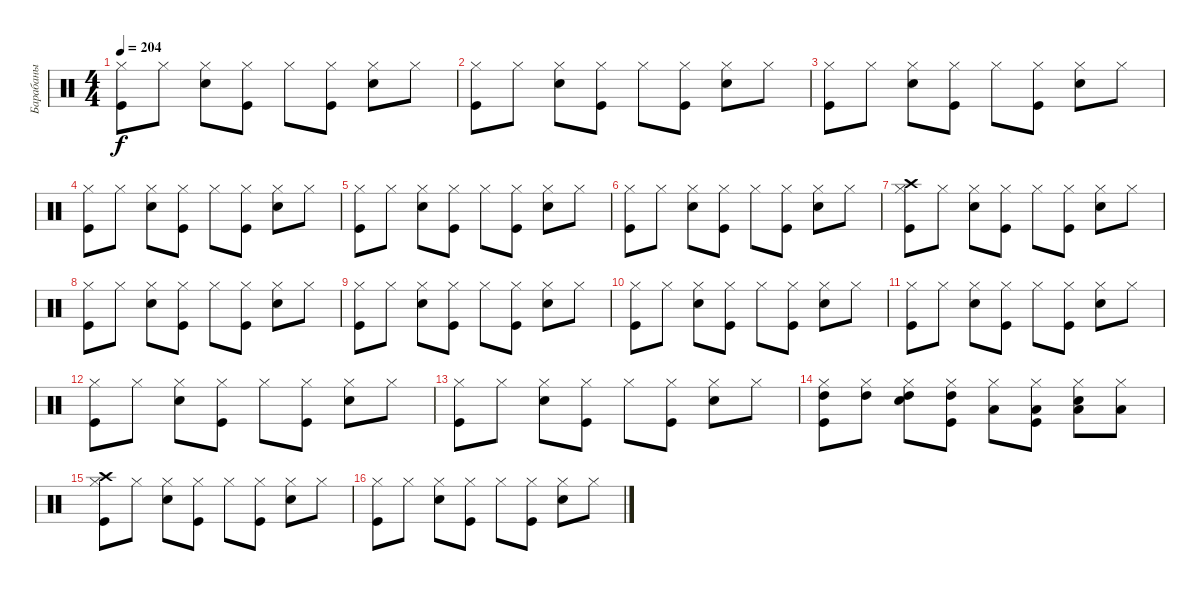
\track ("Барабаны" "Барабаны") {instrument percussion}
\staff {score}
\articulation defaults
\ts (4 4)
\tempo 204
\clef neutral
\ks c
("Kick (hit)" "Hi-Hat (closed)").8{dy f} "Hi-Hat (closed)".8 ("Snare (hit) 2" "Hi-Hat (closed)").8 ("Kick (hit)" "Hi-Hat (closed)").8 "Hi-Hat (closed)".8 ("Kick (hit)" "Hi-Hat (closed)").8 ("Snare (hit) 2" "Hi-Hat (closed)").8 "Hi-Hat (closed)".8 |
("Kick (hit)" "Hi-Hat (closed)").8 "Hi-Hat (closed)".8 ("Snare (hit) 2" "Hi-Hat (closed)").8 ("Kick (hit)" "Hi-Hat (closed)").8 "Hi-Hat (closed)".8 ("Kick (hit)" "Hi-Hat (closed)").8 ("Snare (hit) 2" "Hi-Hat (closed)").8 "Hi-Hat (closed)".8 |
("Kick (hit)" "Hi-Hat (closed)").8 "Hi-Hat (closed)".8 ("Snare (hit) 2" "Hi-Hat (closed)").8 ("Kick (hit)" "Hi-Hat (closed)").8 "Hi-Hat (closed)".8 ("Kick (hit)" "Hi-Hat (closed)").8 ("Snare (hit) 2" "Hi-Hat (closed)").8 "Hi-Hat (closed)".8 |
("Kick (hit)" "Hi-Hat (closed)").8 "Hi-Hat (closed)".8 ("Snare (hit) 2" "Hi-Hat (closed)").8 ("Kick (hit)" "Hi-Hat (closed)").8 "Hi-Hat (closed)".8 ("Kick (hit)" "Hi-Hat (closed)").8 ("Snare (hit) 2" "Hi-Hat (closed)").8 "Hi-Hat (closed)".8 |
("Kick (hit)" "Hi-Hat (closed)").8 "Hi-Hat (closed)".8 ("Snare (hit) 2" "Hi-Hat (closed)").8 ("Kick (hit)" "Hi-Hat (closed)").8 "Hi-Hat (closed)".8 ("Kick (hit)" "Hi-Hat (closed)").8 ("Snare (hit) 2" "Hi-Hat (closed)").8 "Hi-Hat (closed)".8 |
("Kick (hit)" "Hi-Hat (closed)").8 "Hi-Hat (closed)".8 ("Snare (hit) 2" "Hi-Hat (closed)").8 ("Kick (hit)" "Hi-Hat (closed)").8 "Hi-Hat (closed)".8 ("Kick (hit)" "Hi-Hat (closed)").8 ("Snare (hit) 2" "Hi-Hat (closed)").8 "Hi-Hat (closed)".8 |
("Kick (hit)" "Hi-Hat (closed)" "Crash high (hit)").8 "Hi-Hat (closed)".8 ("Snare (hit) 2" "Hi-Hat (closed)").8 ("Kick (hit)" "Hi-Hat (closed)").8 "Hi-Hat (closed)".8 ("Kick (hit)" "Hi-Hat (closed)").8 ("Snare (hit) 2" "Hi-Hat (closed)").8 "Hi-Hat (closed)".8 |
("Kick (hit)" "Hi-Hat (closed)").8 "Hi-Hat (closed)".8 ("Snare (hit) 2" "Hi-Hat (closed)").8 ("Kick (hit)" "Hi-Hat (closed)").8 "Hi-Hat (closed)".8 ("Kick (hit)" "Hi-Hat (closed)").8 ("Snare (hit) 2" "Hi-Hat (closed)").8 "Hi-Hat (closed)".8 |
("Kick (hit)" "Hi-Hat (closed)").8 "Hi-Hat (closed)".8 ("Snare (hit) 2" "Hi-Hat (closed)").8 ("Kick (hit)" "Hi-Hat (closed)").8 "Hi-Hat (closed)".8 ("Kick (hit)" "Hi-Hat (closed)").8 ("Snare (hit) 2" "Hi-Hat (closed)").8 "Hi-Hat (closed)".8 |
("Kick (hit)" "Hi-Hat (closed)").8 "Hi-Hat (closed)".8 ("Snare (hit) 2" "Hi-Hat (closed)").8 ("Kick (hit)" "Hi-Hat (closed)").8 "Hi-Hat (closed)".8 ("Kick (hit)" "Hi-Hat (closed)").8 ("Snare (hit) 2" "Hi-Hat (closed)").8 "Hi-Hat (closed)".8 |
("Kick (hit)" "Hi-Hat (closed)").8 "Hi-Hat (closed)".8 ("Snare (hit) 2" "Hi-Hat (closed)").8 ("Kick (hit)" "Hi-Hat (closed)").8 "Hi-Hat (closed)".8 ("Kick (hit)" "Hi-Hat (closed)").8 ("Snare (hit) 2" "Hi-Hat (closed)").8 "Hi-Hat (closed)".8 |
("Kick (hit)" "Hi-Hat (closed)").8 "Hi-Hat (closed)".8 ("Snare (hit) 2" "Hi-Hat (closed)").8 ("Kick (hit)" "Hi-Hat (closed)").8 "Hi-Hat (closed)".8 ("Kick (hit)" "Hi-Hat (closed)").8 ("Snare (hit) 2" "Hi-Hat (closed)").8 "Hi-Hat (closed)".8 |
("Kick (hit)" "Hi-Hat (closed)").8 "Hi-Hat (closed)".8 ("Snare (hit) 2" "Hi-Hat (closed)").8 ("Kick (hit)" "Hi-Hat (closed)").8 "Hi-Hat (closed)".8 ("Kick (hit)" "Hi-Hat (closed)").8 ("Snare (hit) 2" "Hi-Hat (closed)").8 "Hi-Hat (closed)".8 |
("Kick (hit)" "Hi-Hat (closed)" "High Tom (hit)").8 ("Hi-Hat (closed)" "High Tom (hit)").8 ("Snare (hit) 2" "Hi-Hat (closed)" "High Tom (hit)").8 ("Kick (hit)" "Hi-Hat (closed)" "High Tom (hit)").8 ("Hi-Hat (closed)" "Low Tom (hit)").8 ("Kick (hit)" "Hi-Hat (closed)" "Low Tom (hit)").8 ("Snare (hit) 2" "Hi-Hat (closed)" "Low Tom (hit)").8 ("Hi-Hat (closed)" "Low Tom (hit)").8 |
("Kick (hit)" "Hi-Hat (closed)" "Crash high (hit)").8 "Hi-Hat (closed)".8 ("Snare (hit) 2" "Hi-Hat (closed)").8 ("Kick (hit)" "Hi-Hat (closed)").8 "Hi-Hat (closed)".8 ("Kick (hit)" "Hi-Hat (closed)").8 ("Snare (hit) 2" "Hi-Hat (closed)").8 "Hi-Hat (closed)".8 |
("Kick (hit)" "Hi-Hat (closed)").8 "Hi-Hat (closed)".8 ("Snare (hit) 2" "Hi-Hat (closed)").8 ("Kick (hit)" "Hi-Hat (closed)").8 "Hi-Hat (closed)".8 ("Kick (hit)" "Hi-Hat (closed)").8 ("Snare (hit) 2" "Hi-Hat (closed)").8 "Hi-Hat (closed)".8
